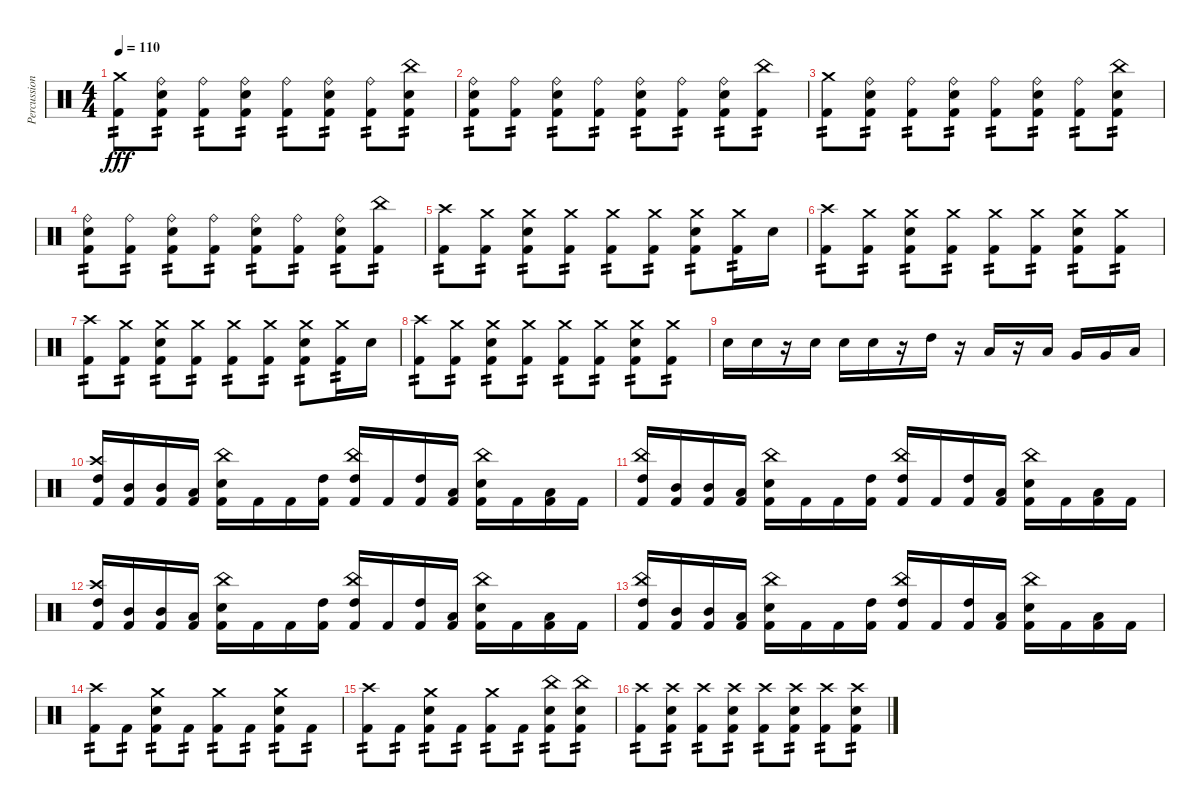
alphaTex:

\track ("Percussion" "Percussion") {solo instrument percussion}
\staff {score}
\articulation defaults
\ts (4 4)
\tempo 110
\clef neutral
\ks c
("Crash medium (hit)" "Kick (hit) 2").8{tp 2 dy fff} ("Ride (bell)" "Electric Snare (hit)" "Kick (hit) 2").8{tp 2} ("Ride (bell)" "Kick (hit) 2").8{tp 2} ("Ride (bell)" "Electric Snare (hit)" "Kick (hit) 2").8{tp 2} ("Ride (bell)" "Kick (hit) 2").8{tp 2} ("Ride (bell)" "Electric Snare (hit)" "Kick (hit) 2").8{tp 2} ("Ride (bell)" "Kick (hit) 2").8{tp 2} ("China (hit)" "Electric Snare (hit)" "Kick (hit) 2").8{tp 2} |
("Ride (bell)" "Electric Snare (hit)" "Kick (hit) 2").8{tp 2} ("Ride (bell)" "Kick (hit) 2").8{tp 2} ("Ride (bell)" "Electric Snare (hit)" "Kick (hit) 2").8{tp 2} ("Ride (bell)" "Kick (hit) 2").8{tp 2} ("Ride (bell)" "Electric Snare (hit)" "Kick (hit) 2").8{tp 2} ("Ride (bell)" "Kick (hit) 2").8{tp 2} ("Ride (bell)" "Electric Snare (hit)" "Kick (hit) 2").8{tp 2} ("China (hit)" "Kick (hit) 2").8{tp 2} |
("Crash medium (hit)" "Kick (hit) 2").8{tp 2} ("Ride (bell)" "Electric Snare (hit)" "Kick (hit) 2").8{tp 2} ("Ride (bell)" "Kick (hit) 2").8{tp 2} ("Ride (bell)" "Electric Snare (hit)" "Kick (hit) 2").8{tp 2} ("Ride (bell)" "Kick (hit) 2").8{tp 2} ("Ride (bell)" "Electric Snare (hit)" "Kick (hit) 2").8{tp 2} ("Ride (bell)" "Kick (hit) 2").8{tp 2} ("China (hit)" "Electric Snare (hit)" "Kick (hit) 2").8{tp 2} |
("Ride (bell)" "Electric Snare (hit)" "Kick (hit) 2").8{tp 2} ("Ride (bell)" "Kick (hit) 2").8{tp 2} ("Ride (bell)" "Electric Snare (hit)" "Kick (hit) 2").8{tp 2} ("Ride (bell)" "Kick (hit) 2").8{tp 2} ("Ride (bell)" "Electric Snare (hit)" "Kick (hit) 2").8{tp 2} ("Ride (bell)" "Kick (hit) 2").8{tp 2} ("Ride (bell)" "Electric Snare (hit)" "Kick (hit) 2").8{tp 2} ("China (hit)" "Kick (hit) 2").8{tp 2} |
("Crash high (hit)" "Kick (hit) 2").8{tp 2} ("Crash medium (hit)" "Kick (hit) 2").8{tp 2} ("Crash medium (hit)" "Electric Snare (hit)" "Kick (hit) 2").8{tp 2} ("Crash medium (hit)" "Kick (hit) 2").8{tp 2} ("Crash medium (hit)" "Kick (hit) 2").8{tp 2} ("Crash medium (hit)" "Kick (hit) 2").8{tp 2} ("Crash medium (hit)" "Electric Snare (hit)" "Kick (hit) 2").8{tp 2} ("Crash medium (hit)" "Kick (hit) 2").16{tp 2} "Electric Snare (hit)".16 |
("Crash high (hit)" "Kick (hit) 2").8{tp 2} ("Crash medium (hit)" "Kick (hit) 2").8{tp 2} ("Crash medium (hit)" "Electric Snare (hit)" "Kick (hit) 2").8{tp 2} ("Crash medium (hit)" "Kick (hit) 2").8{tp 2} ("Crash medium (hit)" "Kick (hit) 2").8{tp 2} ("Crash medium (hit)" "Kick (hit) 2").8{tp 2} ("Crash medium (hit)" "Electric Snare (hit)" "Kick (hit) 2").8{tp 2} ("Crash medium (hit)" "Kick (hit) 2").8{tp 2} |
("Crash high (hit)" "Kick (hit) 2").8{tp 2} ("Crash medium (hit)" "Kick (hit) 2").8{tp 2} ("Crash medium (hit)" "Electric Snare (hit)" "Kick (hit) 2").8{tp 2} ("Crash medium (hit)" "Kick (hit) 2").8{tp 2} ("Crash medium (hit)" "Kick (hit) 2").8{tp 2} ("Crash medium (hit)" "Kick (hit) 2").8{tp 2} ("Crash medium (hit)" "Electric Snare (hit)" "Kick (hit) 2").8{tp 2} ("Crash medium (hit)" "Kick (hit) 2").16{tp 2} "Electric Snare (hit)".16 |
("Crash high (hit)" "Kick (hit) 2").8{tp 2} ("Crash medium (hit)" "Kick (hit) 2").8{tp 2} ("Crash medium (hit)" "Electric Snare (hit)" "Kick (hit) 2").8{tp 2} ("Crash medium (hit)" "Kick (hit) 2").8{tp 2} ("Crash medium (hit)" "Kick (hit) 2").8{tp 2} ("Crash medium (hit)" "Kick (hit) 2").8{tp 2} ("Crash medium (hit)" "Electric Snare (hit)" "Kick (hit) 2").8{tp 2} ("Crash medium (hit)" "Kick (hit) 2").8{tp 2} |
"Electric Snare (hit)".16 "Electric Snare (hit)".16 r.16 "Electric Snare (hit)".16 "Electric Snare (hit)".16 "Electric Snare (hit)".16 r.16 "High Tom (hit)".16 r.16 "Low Tom (hit)".16 r.16 "Low Tom (hit)".16 "Very Low Tom (hit)".16 "Very Low Tom (hit)".16 "Low Floor Tom (hit)".16 |
("Crash high (hit)" "High Tom (hit)" "Kick (hit) 2").16 ("Mid Tom (hit)" "Kick (hit) 2").16 ("Mid Tom (hit)" "Kick (hit) 2").16 ("Low Floor Tom (hit)" "Kick (hit) 2").16 ("China (hit)" "Electric Snare (hit)" "Kick (hit) 2").16 "Kick (hit) 2".16 "Kick (hit) 2".16 ("High Tom (hit)" "Kick (hit) 2").16 ("China (hit)" "High Tom (hit)" "Kick (hit) 2").16 "Kick (hit) 2".16 ("High Tom (hit)" "Kick (hit) 2").16 ("Low Tom (hit)" "Kick (hit) 2").16 ("China (hit)" "Electric Snare (hit)" "Kick (hit) 2").16 "Kick (hit) 2".16 ("Low Floor Tom (hit)" "Kick (hit) 2").16 "Kick (hit) 2".16 |
("China (hit)" "High Tom (hit)" "Kick (hit) 2").16 ("Mid Tom (hit)" "Kick (hit) 2").16 ("Mid Tom (hit)" "Kick (hit) 2").16 ("Low Floor Tom (hit)" "Kick (hit) 2").16 ("China (hit)" "Electric Snare (hit)" "Kick (hit) 2").16 "Kick (hit) 2".16 "Kick (hit) 2".16 ("High Tom (hit)" "Kick (hit) 2").16 ("China (hit)" "High Tom (hit)" "Kick (hit) 2").16 "Kick (hit) 2".16 ("High Tom (hit)" "Kick (hit) 2").16 ("Low Tom (hit)" "Kick (hit) 2").16 ("China (hit)" "Electric Snare (hit)" "Kick (hit) 2").16 "Kick (hit) 2".16 ("Low Floor Tom (hit)" "Kick (hit) 2").16 "Kick (hit) 2".16 |
("Crash high (hit)" "High Tom (hit)" "Kick (hit) 2").16 ("Mid Tom (hit)" "Kick (hit) 2").16 ("Mid Tom (hit)" "Kick (hit) 2").16 ("Low Floor Tom (hit)" "Kick (hit) 2").16 ("China (hit)" "Electric Snare (hit)" "Kick (hit) 2").16 "Kick (hit) 2".16 "Kick (hit) 2".16 ("High Tom (hit)" "Kick (hit) 2").16 ("China (hit)" "High Tom (hit)" "Kick (hit) 2").16 "Kick (hit) 2".16 ("High Tom (hit)" "Kick (hit) 2").16 ("Low Tom (hit)" "Kick (hit) 2").16 ("China (hit)" "Electric Snare (hit)" "Kick (hit) 2").16 "Kick (hit) 2".16 ("Low Floor Tom (hit)" "Kick (hit) 2").16 "Kick (hit) 2".16 |
("China (hit)" "High Tom (hit)" "Kick (hit) 2").16 ("Mid Tom (hit)" "Kick (hit) 2").16 ("Mid Tom (hit)" "Kick (hit) 2").16 ("Low Floor Tom (hit)" "Kick (hit) 2").16 ("China (hit)" "Electric Snare (hit)" "Kick (hit) 2").16 "Kick (hit) 2".16 "Kick (hit) 2".16 ("High Tom (hit)" "Kick (hit) 2").16 ("China (hit)" "High Tom (hit)" "Kick (hit) 2").16 "Kick (hit) 2".16 ("High Tom (hit)" "Kick (hit) 2").16 ("Low Tom (hit)" "Kick (hit) 2").16 ("China (hit)" "Electric Snare (hit)" "Kick (hit) 2").16 "Kick (hit) 2".16 ("Low Floor Tom (hit)" "Kick (hit) 2").16 "Kick (hit) 2".16 |
("Crash high (hit)" "Kick (hit) 2").8{tp 2} "Kick (hit) 2".8{tp 2} ("Crash medium (hit)" "Electric Snare (hit)" "Kick (hit) 2").8{tp 2} "Kick (hit) 2".8{tp 2} ("Crash medium (hit)" "Kick (hit) 2").8{tp 2} "Kick (hit) 2".8{tp 2} ("Crash medium (hit)" "Electric Snare (hit)" "Kick (hit) 2").8{tp 2} "Kick (hit) 2".8{tp 2} |
("Crash high (hit)" "Kick (hit) 2").8{tp 2} "Kick (hit) 2".8{tp 2} ("Crash medium (hit)" "Electric Snare (hit)" "Kick (hit) 2").8{tp 2} "Kick (hit) 2".8{tp 2} ("Crash medium (hit)" "Kick (hit) 2").8{tp 2} "Kick (hit) 2".8{tp 2} ("China (hit)" "Electric Snare (hit)" "Kick (hit) 2").8{tp 2} ("China (hit)" "Electric Snare (hit)" "Kick (hit) 2").8{tp 2} |
("Crash high (hit)" "Kick (hit) 2").8{tp 2} ("Crash high (hit)" "Electric Snare (hit)" "Kick (hit) 2").8{tp 2} ("Crash high (hit)" "Kick (hit) 2").8{tp 2} ("Crash high (hit)" "Electric Snare (hit)" "Kick (hit) 2").8{tp 2} ("Crash high (hit)" "Kick (hit) 2").8{tp 2} ("Crash high (hit)" "Electric Snare (hit)" "Kick (hit) 2").8{tp 2} ("Crash high (hit)" "Kick (hit) 2").8{tp 2} ("Crash high (hit)" "Electric Snare (hit)" "Kick (hit) 2").8{tp 2}
